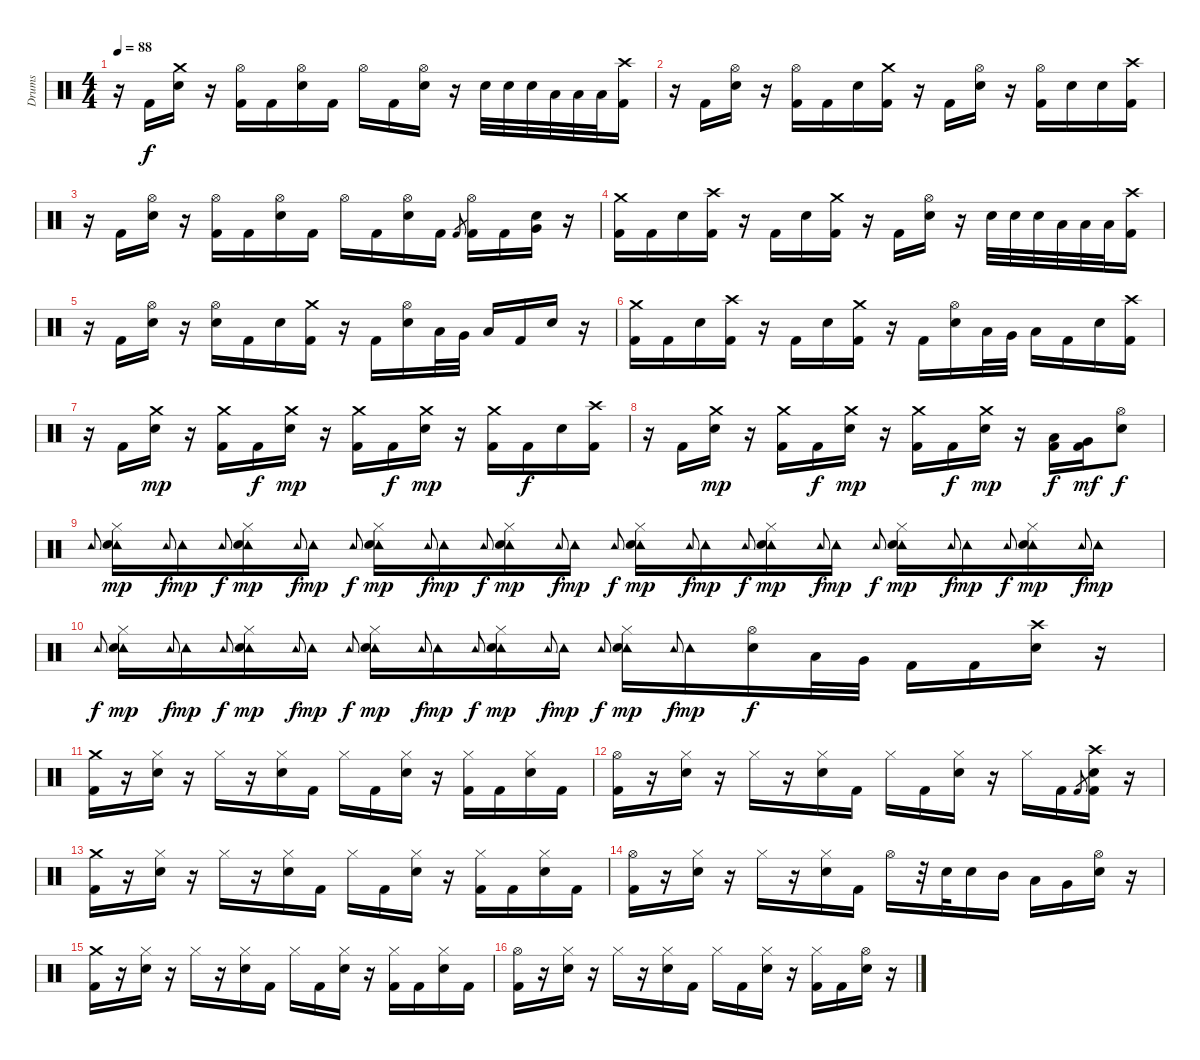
\track ("Drums" "Drums") {instrument percussion}
\staff {score}
\articulation defaults
\ts (4 4)
\tempo 88
\clef neutral
\ks c
r.16{dy f} "Kick (hit) 2".16 ("Crash medium (hit)" "Electric Snare (hit)").16 r.16 ("Hi-Hat (open)" "Kick (hit) 2").16 "Kick (hit) 2".16 ("Hi-Hat (open)" "Electric Snare (hit)").16 "Kick (hit) 2".16 "Hi-Hat (open)".16 "Kick (hit) 2".16 ("Hi-Hat (open)" "Electric Snare (hit)").16 r.16 "Electric Snare (hit)".32 "Electric Snare (hit)".32 "Electric Snare (hit)".32 "Low Tom (hit)".32 "Low Tom (hit)".32 "Low Tom (hit)".32 ("Crash high (hit)" "Kick (hit) 2").16 |
r.16 "Kick (hit) 2".16 ("Hi-Hat (open)" "Electric Snare (hit)").16 r.16 ("Hi-Hat (open)" "Kick (hit) 2").16 "Kick (hit) 2".16 "Electric Snare (hit)".16 ("Crash medium (hit)" "Kick (hit) 2").16 r.16 "Kick (hit) 2".16 ("Hi-Hat (open)" "Electric Snare (hit)").16 r.16 ("Hi-Hat (open)" "Kick (hit) 2").16 "Electric Snare (hit)".16 "Electric Snare (hit)".16 ("Crash high (hit)" "Kick (hit) 2").16 |
r.16 "Kick (hit) 2".16 ("Hi-Hat (open)" "Electric Snare (hit)").16 r.16 ("Hi-Hat (open)" "Kick (hit) 2").16 "Kick (hit) 2".16 ("Hi-Hat (open)" "Electric Snare (hit)").16 "Kick (hit) 2".16 "Hi-Hat (open)".16 "Kick (hit) 2".16 ("Hi-Hat (open)" "Electric Snare (hit)").16 "Kick (hit) 2".16 "Kick (hit) 2".8{gr} ("Hi-Hat (open)" "Kick (hit) 2").16 "Kick (hit) 2".16 ("Very Low Tom (hit)" "Electric Snare (hit)").16 r.16 |
("Crash medium (hit)" "Kick (hit) 2").16 "Kick (hit) 2".16 "Electric Snare (hit)".16 ("Crash high (hit)" "Kick (hit) 2").16 r.16 "Kick (hit) 2".16 "Electric Snare (hit)".16 ("Crash medium (hit)" "Kick (hit) 2").16 r.16 "Kick (hit) 2".16 ("Hi-Hat (open)" "Electric Snare (hit)").16 r.16 "Electric Snare (hit)".32 "Electric Snare (hit)".32 "Electric Snare (hit)".32 "Low Tom (hit)".32 "Low Tom (hit)".32 "Low Tom (hit)".32 ("Crash high (hit)" "Kick (hit) 2").16 |
r.16 "Kick (hit) 2".16 ("Hi-Hat (open)" "Electric Snare (hit)").16 r.16 ("Hi-Hat (open)" "Electric Snare (hit)").16 "Kick (hit) 2".16 "Electric Snare (hit)".16 ("Crash medium (hit)" "Kick (hit) 2").16 r.16 "Kick (hit) 2".16 ("Hi-Hat (open)" "Electric Snare (hit)").16 "Low Tom (hit)".32 "Very Low Tom (hit)".32 "Low Floor Tom (hit)".16 "Kick (hit) 2".16 "Electric Snare (hit)".16 r.16 |
("Crash medium (hit)" "Kick (hit) 2").16 "Kick (hit) 2".16 "Electric Snare (hit)".16 ("Crash high (hit)" "Kick (hit) 2").16 r.16 "Kick (hit) 2".16 "Electric Snare (hit)".16 ("Crash medium (hit)" "Kick (hit) 2").16 r.16 "Kick (hit) 2".16 ("Hi-Hat (open)" "Electric Snare (hit)").16 "Low Tom (hit)".32 "Very Low Tom (hit)".32 "Low Floor Tom (hit)".16 "Kick (hit) 2".16 "Electric Snare (hit)".16 ("Crash high (hit)" "Kick (hit) 2").16 |
r.16 "Kick (hit) 2".16 ("Crash medium (hit)" "Electric Snare (hit)").16{dy mp} r.16 ("Crash medium (hit)" "Kick (hit) 2").16 "Kick (hit) 2".16{dy f} ("Crash medium (hit)" "Electric Snare (hit)").16{dy mp} r.16 ("Crash medium (hit)" "Kick (hit) 2").16 "Kick (hit) 2".16{dy f} ("Crash medium (hit)" "Electric Snare (hit)").16{dy mp} r.16 ("Crash medium (hit)" "Kick (hit) 2").16 "Kick (hit) 2".16{dy f} "Electric Snare (hit)".16 ("Crash high (hit)" "Kick (hit) 2").16 |
r.16 "Kick (hit) 2".16 ("Crash medium (hit)" "Electric Snare (hit)").16{dy mp} r.16 ("Crash medium (hit)" "Kick (hit) 2").16 "Kick (hit) 2".16{dy f} ("Crash medium (hit)" "Electric Snare (hit)").16{dy mp} r.16 ("Crash medium (hit)" "Kick (hit) 2").16 "Kick (hit) 2".16{dy f} ("Crash medium (hit)" "Electric Snare (hit)").16{dy mp} r.16 ("Low Tom (hit)" "Kick (hit) 2").16{dy f} ("Very Low Tom (hit)" "Kick (hit) 2").16{dy mf} ("Hi-Hat (open)" "Electric Snare (hit)").8{dy f} |
"Tambourine (hit)".8{gr onbeat} ("Hi-Hat (closed)" "Tambourine (hit)" "Electric Snare (hit)").16{dy mp} "Tambourine (hit)".8{gr onbeat dy f} "Tambourine (hit)".16{dy mp} "Tambourine (hit)".8{gr onbeat dy f} ("Hi-Hat (closed)" "Tambourine (hit)" "Electric Snare (hit)").16{dy mp} "Tambourine (hit)".8{gr onbeat dy f} "Tambourine (hit)".16{dy mp} "Tambourine (hit)".8{gr onbeat dy f} ("Hi-Hat (closed)" "Tambourine (hit)" "Electric Snare (hit)").16{dy mp} "Tambourine (hit)".8{gr onbeat dy f} "Tambourine (hit)".16{dy mp} "Tambourine (hit)".8{gr onbeat dy f} ("Hi-Hat (closed)" "Tambourine (hit)" "Electric Snare (hit)").16{dy mp} "Tambourine (hit)".8{gr onbeat dy f} "Tambourine (hit)".16{dy mp} "Tambourine (hit)".8{gr onbeat dy f} ("Hi-Hat (closed)" "Tambourine (hit)" "Electric Snare (hit)").16{dy mp} "Tambourine (hit)".8{gr onbeat dy f} "Tambourine (hit)".16{dy mp} "Tambourine (hit)".8{gr onbeat dy f} ("Hi-Hat (closed)" "Tambourine (hit)" "Electric Snare (hit)").16{dy mp} "Tambourine (hit)".8{gr onbeat dy f} "Tambourine (hit)".16{dy mp} "Tambourine (hit)".8{gr onbeat dy f} ("Hi-Hat (closed)" "Tambourine (hit)" "Electric Snare (hit)").16{dy mp} "Tambourine (hit)".8{gr onbeat dy f} "Tambourine (hit)".16{dy mp} "Tambourine (hit)".8{gr onbeat dy f} ("Hi-Hat (closed)" "Tambourine (hit)" "Electric Snare (hit)").16{dy mp} "Tambourine (hit)".8{gr onbeat dy f} "Tambourine (hit)".16{dy mp} |
"Tambourine (hit)".8{gr onbeat dy f} ("Tambourine (hit)" "Hi-Hat (closed)" "Electric Snare (hit)").16{dy mp} "Tambourine (hit)".8{gr onbeat dy f} "Tambourine (hit)".16{dy mp} "Tambourine (hit)".8{gr onbeat dy f} ("Tambourine (hit)" "Hi-Hat (closed)" "Electric Snare (hit)").16{dy mp} "Tambourine (hit)".8{gr onbeat dy f} "Tambourine (hit)".16{dy mp} "Tambourine (hit)".8{gr onbeat dy f} ("Tambourine (hit)" "Hi-Hat (closed)" "Electric Snare (hit)").16{dy mp} "Tambourine (hit)".8{gr onbeat dy f} "Tambourine (hit)".16{dy mp} "Tambourine (hit)".8{gr onbeat dy f} ("Tambourine (hit)" "Hi-Hat (closed)" "Electric Snare (hit)").16{dy mp} "Tambourine (hit)".8{gr onbeat dy f} "Tambourine (hit)".16{dy mp} "Tambourine (hit)".8{gr onbeat dy f} ("Tambourine (hit)" "Hi-Hat (closed)" "Electric Snare (hit)").16{dy mp} "Tambourine (hit)".8{gr onbeat dy f} "Tambourine (hit)".16{dy mp} ("Hi-Hat (open)" "Electric Snare (hit)").16{dy f} "Low Tom (hit)".32 "Very Low Tom (hit)".32 "Kick (hit) 2".16 "Kick (hit) 2".16 ("Crash high (hit)" "Electric Snare (hit)").16 r.16 |
("Crash medium (hit)" "Kick (hit) 2").16 r.16 ("Hi-Hat (closed)" "Electric Snare (hit)").16 r.16 "Hi-Hat (closed)".16 r.16 ("Hi-Hat (closed)" "Electric Snare (hit)").16 "Kick (hit) 2".16 "Hi-Hat (closed)".16 "Kick (hit) 2".16 ("Hi-Hat (closed)" "Electric Snare (hit)").16 r.16 ("Hi-Hat (closed)" "Kick (hit) 2").16 "Kick (hit) 2".16 ("Hi-Hat (closed)" "Electric Snare (hit)").16 "Kick (hit) 2".16 |
("Hi-Hat (open)" "Kick (hit) 2").16 r.16 ("Hi-Hat (closed)" "Electric Snare (hit)").16 r.16 "Hi-Hat (closed)".16 r.16 ("Hi-Hat (closed)" "Electric Snare (hit)").16 "Kick (hit) 2".16 "Hi-Hat (closed)".16 "Kick (hit) 2".16 ("Hi-Hat (closed)" "Electric Snare (hit)").16 r.16 "Hi-Hat (closed)".16 "Kick (hit) 2".16 "Kick (hit) 2".8{gr} ("Crash high (hit)" "Electric Snare (hit)" "Kick (hit) 2").16 r.16 |
("Crash medium (hit)" "Kick (hit) 2").16 r.16 ("Hi-Hat (closed)" "Electric Snare (hit)").16 r.16 "Hi-Hat (closed)".16 r.16 ("Hi-Hat (closed)" "Electric Snare (hit)").16 "Kick (hit) 2".16 "Hi-Hat (closed)".16 "Kick (hit) 2".16 ("Hi-Hat (closed)" "Electric Snare (hit)").16 r.16 ("Hi-Hat (closed)" "Kick (hit) 2").16 "Kick (hit) 2".16 ("Hi-Hat (closed)" "Electric Snare (hit)").16 "Kick (hit) 2".16 |
("Hi-Hat (open)" "Kick (hit) 2").16 r.16 ("Hi-Hat (closed)" "Electric Snare (hit)").16 r.16 "Hi-Hat (closed)".16 r.16 ("Hi-Hat (closed)" "Electric Snare (hit)").16 "Kick (hit) 2".16 "Hi-Hat (open)".16 r.32 "Electric Snare (hit)".32 "Electric Snare (hit)".16 "Mid Tom (hit)".16 "Low Tom (hit)".16 "Very Low Tom (hit)".16 ("Hi-Hat (open)" "Electric Snare (hit)").16 r.16 |
("Crash medium (hit)" "Kick (hit) 2").16 r.16 ("Hi-Hat (closed)" "Electric Snare (hit)").16 r.16 "Hi-Hat (closed)".16 r.16 ("Hi-Hat (closed)" "Electric Snare (hit)").16 "Kick (hit) 2".16 "Hi-Hat (closed)".16 "Kick (hit) 2".16 ("Hi-Hat (closed)" "Electric Snare (hit)").16 r.16 ("Hi-Hat (closed)" "Kick (hit) 2").16 "Kick (hit) 2".16 ("Hi-Hat (closed)" "Electric Snare (hit)").16 "Kick (hit) 2".16 |
("Hi-Hat (open)" "Kick (hit) 2").16 r.16 ("Hi-Hat (closed)" "Electric Snare (hit)").16 r.16 "Hi-Hat (closed)".16 r.16 ("Hi-Hat (closed)" "Electric Snare (hit)").16 "Kick (hit) 2".16 "Hi-Hat (closed)".16 "Kick (hit) 2".16 ("Hi-Hat (closed)" "Electric Snare (hit)").16 r.16 ("Hi-Hat (closed)" "Kick (hit) 2").16 "Kick (hit) 2".16 ("Hi-Hat (open)" "Electric Snare (hit)").16 r.16
